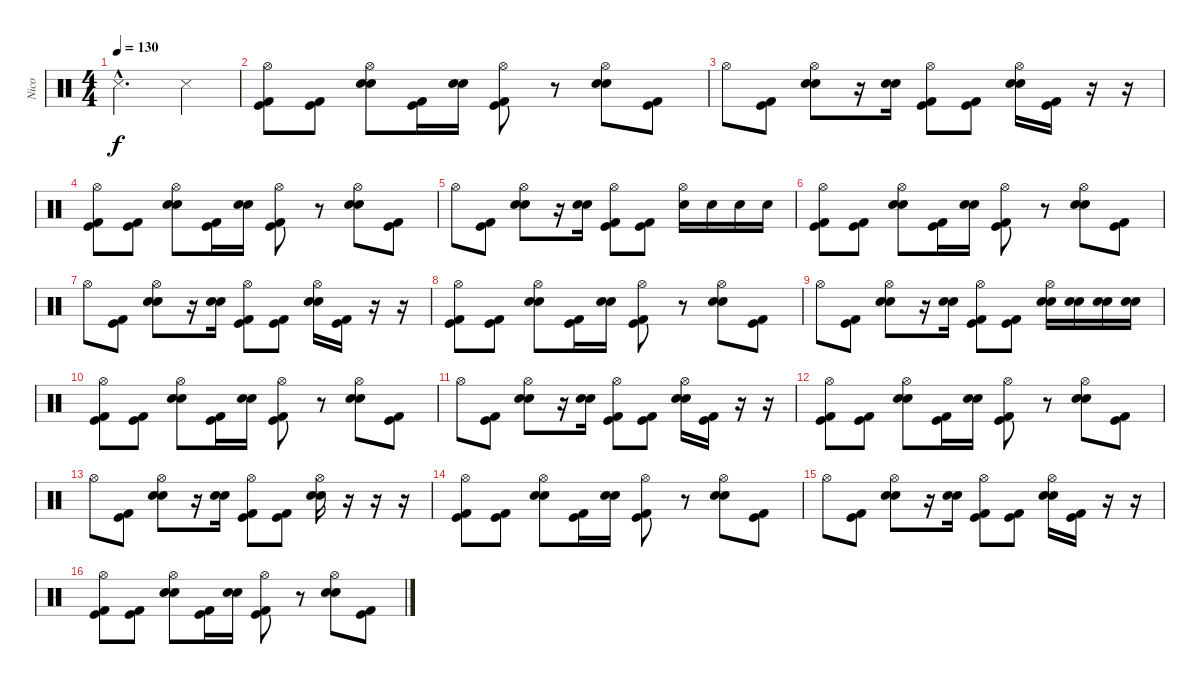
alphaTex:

\track ("Nico" "Nico") {instrument percussion}
\staff {score}
\articulation defaults
\ts (4 4)
\tempo 130
\clef neutral
\ks c "Snare (side stick) 3"{hac}.2{d dy f} "Snare (side stick) 3".4
|
("Hi-Hat (open)" "Kick (hit) 2" "Kick (hit)").8 ("Kick (hit) 2" "Kick (hit)").8 ("Hi-Hat (open)" "Electric Snare (hit)" "Electric Snare (hit)").8 ("Kick (hit) 2" "Kick (hit)").16 ("Electric Snare (hit)" "Electric Snare (hit)").16 ("Hi-Hat (open)" "Kick (hit) 2" "Kick (hit)").8 r.8 ("Hi-Hat (open)" "Electric Snare (hit)" "Electric Snare (hit)").8 ("Kick (hit)" "Kick (hit) 2").8 |
"Hi-Hat (open)".8 ("Kick (hit) 2" "Kick (hit)").8 ("Hi-Hat (open)" "Electric Snare (hit)" "Electric Snare (hit)").8 r.16 ("Electric Snare (hit)" "Electric Snare (hit)").16 ("Hi-Hat (open)" "Kick (hit) 2" "Kick (hit)").8 ("Kick (hit) 2" "Kick (hit)").8 ("Hi-Hat (open)" "Electric Snare (hit)" "Electric Snare (hit)").16 ("Kick (hit) 2" "Kick (hit)").16 r.16 r.16 |
("Hi-Hat (open)" "Kick (hit) 2" "Kick (hit)").8 ("Kick (hit) 2" "Kick (hit)").8 ("Hi-Hat (open)" "Electric Snare (hit)" "Electric Snare (hit)").8 ("Kick (hit) 2" "Kick (hit)").16 ("Electric Snare (hit)" "Electric Snare (hit)").16 ("Hi-Hat (open)" "Kick (hit) 2" "Kick (hit)").8 r.8 ("Hi-Hat (open)" "Electric Snare (hit)" "Electric Snare (hit)").8 ("Kick (hit)" "Kick (hit) 2").8 |
"Hi-Hat (open)".8 ("Kick (hit) 2" "Kick (hit)").8 ("Hi-Hat (open)" "Electric Snare (hit)" "Electric Snare (hit)").8 r.16 ("Electric Snare (hit)" "Electric Snare (hit)").16 ("Hi-Hat (open)" "Kick (hit) 2" "Kick (hit)").8 ("Kick (hit) 2" "Kick (hit)").8 ("Hi-Hat (open)" "Electric Snare (hit)").16 "Electric Snare (hit)".16 "Electric Snare (hit)".16 "Electric Snare (hit)".16 |
("Hi-Hat (open)" "Kick (hit) 2" "Kick (hit)").8 ("Kick (hit) 2" "Kick (hit)").8 ("Hi-Hat (open)" "Electric Snare (hit)" "Electric Snare (hit)").8 ("Kick (hit) 2" "Kick (hit)").16 ("Electric Snare (hit)" "Electric Snare (hit)").16 ("Hi-Hat (open)" "Kick (hit) 2" "Kick (hit)").8 r.8 ("Hi-Hat (open)" "Electric Snare (hit)" "Electric Snare (hit)").8 ("Kick (hit)" "Kick (hit) 2").8 |
"Hi-Hat (open)".8 ("Kick (hit) 2" "Kick (hit)").8 ("Hi-Hat (open)" "Electric Snare (hit)" "Electric Snare (hit)").8 r.16 ("Electric Snare (hit)" "Electric Snare (hit)").16 ("Hi-Hat (open)" "Kick (hit) 2" "Kick (hit)").8 ("Kick (hit) 2" "Kick (hit)").8 ("Hi-Hat (open)" "Electric Snare (hit)" "Electric Snare (hit)").16 ("Kick (hit) 2" "Kick (hit)").16 r.16 r.16 |
("Hi-Hat (open)" "Kick (hit) 2" "Kick (hit)").8 ("Kick (hit) 2" "Kick (hit)").8 ("Hi-Hat (open)" "Electric Snare (hit)" "Electric Snare (hit)").8 ("Kick (hit) 2" "Kick (hit)").16 ("Electric Snare (hit)" "Electric Snare (hit)").16 ("Hi-Hat (open)" "Kick (hit) 2" "Kick (hit)").8 r.8 ("Hi-Hat (open)" "Electric Snare (hit)" "Electric Snare (hit)").8 ("Kick (hit)" "Kick (hit) 2").8 |
"Hi-Hat (open)".8 ("Kick (hit) 2" "Kick (hit)").8 ("Hi-Hat (open)" "Electric Snare (hit)" "Electric Snare (hit)").8 r.16 ("Electric Snare (hit)" "Electric Snare (hit)").16 ("Hi-Hat (open)" "Kick (hit) 2" "Kick (hit)").8 ("Kick (hit) 2" "Kick (hit)").8 ("Hi-Hat (open)" "Electric Snare (hit)" "Electric Snare (hit)").16 ("Electric Snare (hit)" "Electric Snare (hit)").16 ("Electric Snare (hit)" "Electric Snare (hit)").16 ("Electric Snare (hit)" "Electric Snare (hit)").16 |
("Hi-Hat (open)" "Kick (hit) 2" "Kick (hit)").8 ("Kick (hit) 2" "Kick (hit)").8 ("Hi-Hat (open)" "Electric Snare (hit)" "Electric Snare (hit)").8 ("Kick (hit) 2" "Kick (hit)").16 ("Electric Snare (hit)" "Electric Snare (hit)").16 ("Hi-Hat (open)" "Kick (hit) 2" "Kick (hit)").8 r.8 ("Hi-Hat (open)" "Electric Snare (hit)" "Electric Snare (hit)").8 ("Kick (hit)" "Kick (hit) 2").8 |
"Hi-Hat (open)".8 ("Kick (hit) 2" "Kick (hit)").8 ("Hi-Hat (open)" "Electric Snare (hit)" "Electric Snare (hit)").8 r.16 ("Electric Snare (hit)" "Electric Snare (hit)").16 ("Hi-Hat (open)" "Kick (hit) 2" "Kick (hit)").8 ("Kick (hit) 2" "Kick (hit)").8 ("Hi-Hat (open)" "Electric Snare (hit)" "Electric Snare (hit)").16 ("Kick (hit) 2" "Kick (hit)").16 r.16 r.16 |
("Hi-Hat (open)" "Kick (hit) 2" "Kick (hit)").8 ("Kick (hit) 2" "Kick (hit)").8 ("Hi-Hat (open)" "Electric Snare (hit)" "Electric Snare (hit)").8 ("Kick (hit) 2" "Kick (hit)").16 ("Electric Snare (hit)" "Electric Snare (hit)").16 ("Hi-Hat (open)" "Kick (hit) 2" "Kick (hit)").8 r.8 ("Hi-Hat (open)" "Electric Snare (hit)" "Electric Snare (hit)").8 ("Kick (hit)" "Kick (hit) 2").8 |
"Hi-Hat (open)".8 ("Kick (hit) 2" "Kick (hit)").8 ("Hi-Hat (open)" "Electric Snare (hit)" "Electric Snare (hit)").8 r.16 ("Electric Snare (hit)" "Electric Snare (hit)").16 ("Hi-Hat (open)" "Kick (hit) 2" "Kick (hit)").8 ("Kick (hit) 2" "Kick (hit)").8 ("Hi-Hat (open)" "Electric Snare (hit)" "Electric Snare (hit)").16 r.16 r.16 r.16 |
("Hi-Hat (open)" "Kick (hit) 2" "Kick (hit)").8 ("Kick (hit) 2" "Kick (hit)").8 ("Hi-Hat (open)" "Electric Snare (hit)" "Electric Snare (hit)").8 ("Kick (hit) 2" "Kick (hit)").16 ("Electric Snare (hit)" "Electric Snare (hit)").16 ("Hi-Hat (open)" "Kick (hit) 2" "Kick (hit)").8 r.8 ("Hi-Hat (open)" "Electric Snare (hit)" "Electric Snare (hit)").8 ("Kick (hit)" "Kick (hit) 2").8 |
"Hi-Hat (open)".8 ("Kick (hit) 2" "Kick (hit)").8 ("Hi-Hat (open)" "Electric Snare (hit)" "Electric Snare (hit)").8 r.16 ("Electric Snare (hit)" "Electric Snare (hit)").16 ("Hi-Hat (open)" "Kick (hit) 2" "Kick (hit)").8 ("Kick (hit) 2" "Kick (hit)").8 ("Hi-Hat (open)" "Electric Snare (hit)" "Electric Snare (hit)").16 ("Kick (hit) 2" "Kick (hit)").16 r.16 r.16 |
("Hi-Hat (open)" "Kick (hit) 2" "Kick (hit)").8 ("Kick (hit) 2" "Kick (hit)").8 ("Hi-Hat (open)" "Electric Snare (hit)" "Electric Snare (hit)").8 ("Kick (hit) 2" "Kick (hit)").16 ("Electric Snare (hit)" "Electric Snare (hit)").16 ("Hi-Hat (open)" "Kick (hit) 2" "Kick (hit)").8 r.8 ("Hi-Hat (open)" "Electric Snare (hit)" "Electric Snare (hit)").8 ("Kick (hit)" "Kick (hit) 2").8
